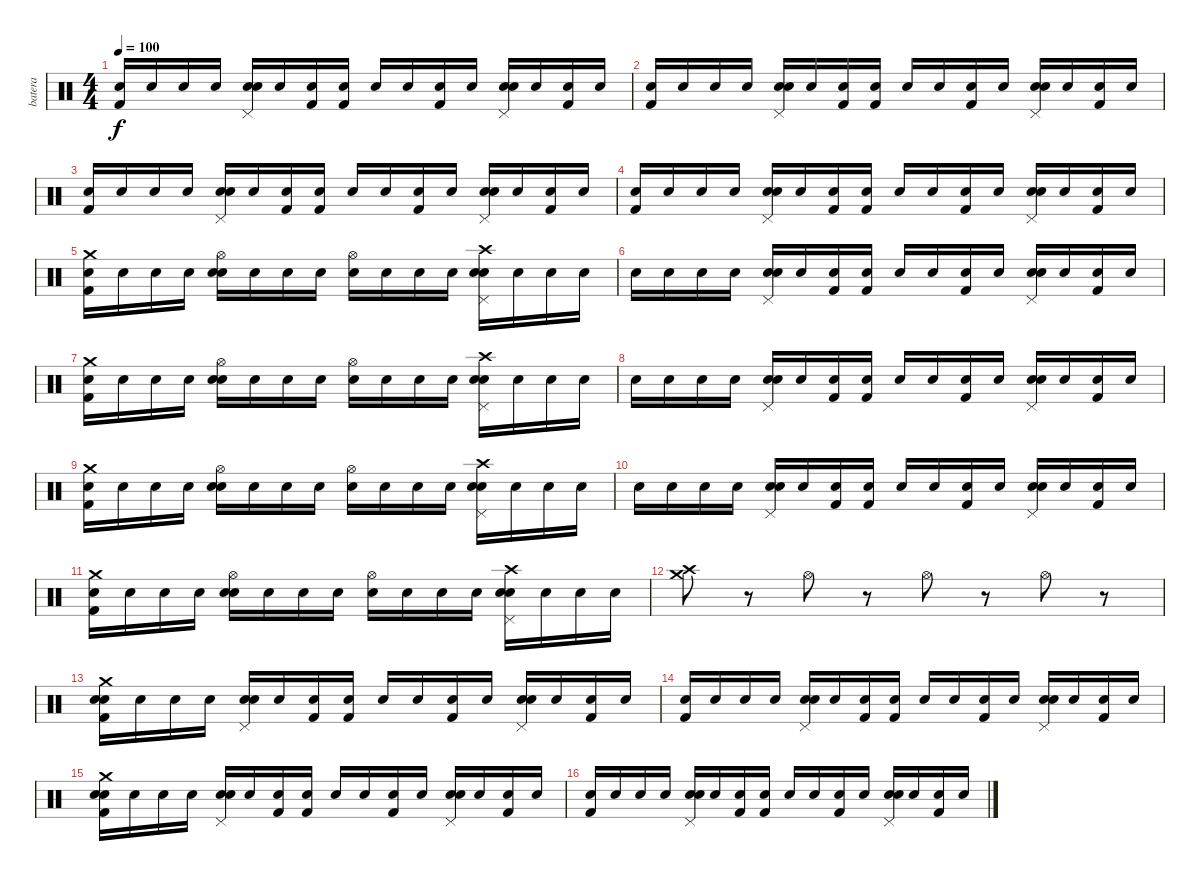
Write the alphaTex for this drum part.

\track ("batera" "batera") {instrument percussion}
\staff {score}
\articulation defaults
\ts (4 4)
\tempo 100
\clef neutral
\ks c
("Snare (hit)" "Kick (hit) 2").16{dy f} "Snare (hit)".16 "Snare (hit)".16 "Snare (hit)".16 ("Snare (hit)" "Pedal Hi-Hat (hit)" "Snare (hit) 2").16 "Snare (hit)".16 ("Snare (hit)" "Kick (hit) 2").16 ("Snare (hit)" "Kick (hit) 2").16 "Snare (hit)".16 "Snare (hit)".16 ("Snare (hit)" "Kick (hit) 2").16 "Snare (hit)".16 ("Snare (hit)" "Pedal Hi-Hat (hit)" "Snare (hit) 2").16 "Snare (hit)".16 ("Snare (hit)" "Kick (hit) 2").16 "Snare (hit)".16 |
("Snare (hit)" "Kick (hit) 2").16 "Snare (hit)".16 "Snare (hit)".16 "Snare (hit)".16 ("Snare (hit)" "Pedal Hi-Hat (hit)" "Snare (hit) 2").16 "Snare (hit)".16 ("Snare (hit)" "Kick (hit) 2").16 ("Snare (hit)" "Kick (hit) 2").16 "Snare (hit)".16 "Snare (hit)".16 ("Snare (hit)" "Kick (hit) 2").16 "Snare (hit)".16 ("Snare (hit)" "Pedal Hi-Hat (hit)" "Snare (hit) 2").16 "Snare (hit)".16 ("Snare (hit)" "Kick (hit) 2").16 "Snare (hit)".16 |
("Snare (hit)" "Kick (hit) 2").16 "Snare (hit)".16 "Snare (hit)".16 "Snare (hit)".16 ("Snare (hit)" "Pedal Hi-Hat (hit)" "Snare (hit) 2").16 "Snare (hit)".16 ("Snare (hit)" "Kick (hit) 2").16 ("Snare (hit)" "Kick (hit) 2").16 "Snare (hit)".16 "Snare (hit)".16 ("Snare (hit)" "Kick (hit) 2").16 "Snare (hit)".16 ("Snare (hit)" "Pedal Hi-Hat (hit)" "Snare (hit) 2").16 "Snare (hit)".16 ("Snare (hit)" "Kick (hit) 2").16 "Snare (hit)".16 |
("Snare (hit)" "Kick (hit) 2").16 "Snare (hit)".16 "Snare (hit)".16 "Snare (hit)".16 ("Snare (hit)" "Pedal Hi-Hat (hit)" "Snare (hit) 2").16 "Snare (hit)".16 ("Snare (hit)" "Kick (hit) 2").16 ("Snare (hit)" "Kick (hit) 2").16 "Snare (hit)".16 "Snare (hit)".16 ("Snare (hit)" "Kick (hit) 2").16 "Snare (hit)".16 ("Snare (hit)" "Pedal Hi-Hat (hit)" "Snare (hit) 2").16 "Snare (hit)".16 ("Snare (hit)" "Kick (hit) 2").16 "Snare (hit)".16 |
("Snare (hit)" "Crash medium (hit)" "Kick (hit) 2").16 "Snare (hit)".16 "Snare (hit)".16 "Snare (hit)".16 ("Snare (hit)" "Snare (hit) 2" "Hi-Hat (open)").16 "Snare (hit)".16 "Snare (hit)".16 "Snare (hit)".16 ("Snare (hit)" "Hi-Hat (open)").16 "Snare (hit)".16 "Snare (hit)".16 "Snare (hit)".16 ("Snare (hit)" "Crash high (hit)" "Pedal Hi-Hat (hit)" "Snare (hit) 2").16 "Snare (hit)".16 "Snare (hit)".16 "Snare (hit)".16 |
"Snare (hit)".16 "Snare (hit)".16 "Snare (hit)".16 "Snare (hit)".16 ("Snare (hit)" "Pedal Hi-Hat (hit)" "Snare (hit) 2").16 "Snare (hit)".16 ("Snare (hit)" "Kick (hit) 2").16 ("Snare (hit)" "Kick (hit) 2").16 "Snare (hit)".16 "Snare (hit)".16 ("Snare (hit)" "Kick (hit) 2").16 "Snare (hit)".16 ("Snare (hit)" "Pedal Hi-Hat (hit)" "Snare (hit) 2").16 "Snare (hit)".16 ("Snare (hit)" "Kick (hit) 2").16 "Snare (hit)".16 |
("Snare (hit)" "Crash medium (hit)" "Kick (hit) 2").16 "Snare (hit)".16 "Snare (hit)".16 "Snare (hit)".16 ("Snare (hit)" "Snare (hit) 2" "Hi-Hat (open)").16 "Snare (hit)".16 "Snare (hit)".16 "Snare (hit)".16 ("Snare (hit)" "Hi-Hat (open)").16 "Snare (hit)".16 "Snare (hit)".16 "Snare (hit)".16 ("Snare (hit)" "Crash high (hit)" "Pedal Hi-Hat (hit)" "Snare (hit) 2").16 "Snare (hit)".16 "Snare (hit)".16 "Snare (hit)".16 |
"Snare (hit)".16 "Snare (hit)".16 "Snare (hit)".16 "Snare (hit)".16 ("Snare (hit)" "Pedal Hi-Hat (hit)" "Snare (hit) 2").16 "Snare (hit)".16 ("Snare (hit)" "Kick (hit) 2").16 ("Snare (hit)" "Kick (hit) 2").16 "Snare (hit)".16 "Snare (hit)".16 ("Snare (hit)" "Kick (hit) 2").16 "Snare (hit)".16 ("Snare (hit)" "Pedal Hi-Hat (hit)" "Snare (hit) 2").16 "Snare (hit)".16 ("Snare (hit)" "Kick (hit) 2").16 "Snare (hit)".16 |
("Snare (hit)" "Crash medium (hit)" "Kick (hit) 2").16 "Snare (hit)".16 "Snare (hit)".16 "Snare (hit)".16 ("Snare (hit)" "Snare (hit) 2" "Hi-Hat (open)").16 "Snare (hit)".16 "Snare (hit)".16 "Snare (hit)".16 ("Snare (hit)" "Hi-Hat (open)").16 "Snare (hit)".16 "Snare (hit)".16 "Snare (hit)".16 ("Snare (hit)" "Crash high (hit)" "Pedal Hi-Hat (hit)" "Snare (hit) 2").16 "Snare (hit)".16 "Snare (hit)".16 "Snare (hit)".16 |
"Snare (hit)".16 "Snare (hit)".16 "Snare (hit)".16 "Snare (hit)".16 ("Snare (hit)" "Pedal Hi-Hat (hit)" "Snare (hit) 2").16 "Snare (hit)".16 ("Snare (hit)" "Kick (hit) 2").16 ("Snare (hit)" "Kick (hit) 2").16 "Snare (hit)".16 "Snare (hit)".16 ("Snare (hit)" "Kick (hit) 2").16 "Snare (hit)".16 ("Snare (hit)" "Pedal Hi-Hat (hit)" "Snare (hit) 2").16 "Snare (hit)".16 ("Snare (hit)" "Kick (hit) 2").16 "Snare (hit)".16 |
("Snare (hit)" "Crash medium (hit)" "Kick (hit) 2").16 "Snare (hit)".16 "Snare (hit)".16 "Snare (hit)".16 ("Snare (hit)" "Snare (hit) 2" "Hi-Hat (open)").16 "Snare (hit)".16 "Snare (hit)".16 "Snare (hit)".16 ("Snare (hit)" "Hi-Hat (open)").16 "Snare (hit)".16 "Snare (hit)".16 "Snare (hit)".16 ("Snare (hit)" "Crash high (hit)" "Pedal Hi-Hat (hit)" "Snare (hit) 2").16 "Snare (hit)".16 "Snare (hit)".16 "Snare (hit)".16 |
("Crash high (hit)" "Crash medium (hit)").8 r.8 "Hi-Hat (open)".8 r.8 "Hi-Hat (open)".8 r.8 "Hi-Hat (open)".8 r.8 |
("Snare (hit)" "Crash medium (hit)" "Kick (hit) 2" "Snare (hit) 2").16 "Snare (hit)".16 "Snare (hit)".16 "Snare (hit)".16 ("Snare (hit)" "Pedal Hi-Hat (hit)" "Snare (hit) 2").16 "Snare (hit)".16 ("Snare (hit)" "Kick (hit) 2").16 ("Snare (hit)" "Kick (hit) 2").16 "Snare (hit)".16 "Snare (hit)".16 ("Snare (hit)" "Kick (hit) 2").16 "Snare (hit)".16 ("Snare (hit)" "Pedal Hi-Hat (hit)" "Snare (hit) 2").16 "Snare (hit)".16 ("Snare (hit)" "Kick (hit) 2").16 "Snare (hit)".16 |
("Snare (hit)" "Kick (hit) 2").16 "Snare (hit)".16 "Snare (hit)".16 "Snare (hit)".16 ("Snare (hit)" "Pedal Hi-Hat (hit)" "Snare (hit) 2").16 "Snare (hit)".16 ("Snare (hit)" "Kick (hit) 2").16 ("Snare (hit)" "Kick (hit) 2").16 "Snare (hit)".16 "Snare (hit)".16 ("Snare (hit)" "Kick (hit) 2").16 "Snare (hit)".16 ("Snare (hit)" "Pedal Hi-Hat (hit)" "Snare (hit) 2").16 "Snare (hit)".16 ("Snare (hit)" "Kick (hit) 2").16 "Snare (hit)".16 |
("Snare (hit)" "Crash medium (hit)" "Kick (hit) 2" "Snare (hit) 2").16 "Snare (hit)".16 "Snare (hit)".16 "Snare (hit)".16 ("Snare (hit)" "Pedal Hi-Hat (hit)" "Snare (hit) 2").16 "Snare (hit)".16 ("Snare (hit)" "Kick (hit) 2").16 ("Snare (hit)" "Kick (hit) 2").16 "Snare (hit)".16 "Snare (hit)".16 ("Snare (hit)" "Kick (hit) 2").16 "Snare (hit)".16 ("Snare (hit)" "Pedal Hi-Hat (hit)" "Snare (hit) 2").16 "Snare (hit)".16 ("Snare (hit)" "Kick (hit) 2").16 "Snare (hit)".16 |
("Snare (hit)" "Kick (hit) 2").16 "Snare (hit)".16 "Snare (hit)".16 "Snare (hit)".16 ("Snare (hit)" "Pedal Hi-Hat (hit)" "Snare (hit) 2").16 "Snare (hit)".16 ("Snare (hit)" "Kick (hit) 2").16 ("Snare (hit)" "Kick (hit) 2").16 "Snare (hit)".16 "Snare (hit)".16 ("Snare (hit)" "Kick (hit) 2").16 "Snare (hit)".16 ("Snare (hit)" "Pedal Hi-Hat (hit)" "Snare (hit) 2").16 "Snare (hit)".16 ("Snare (hit)" "Kick (hit) 2").16 "Snare (hit)".16
